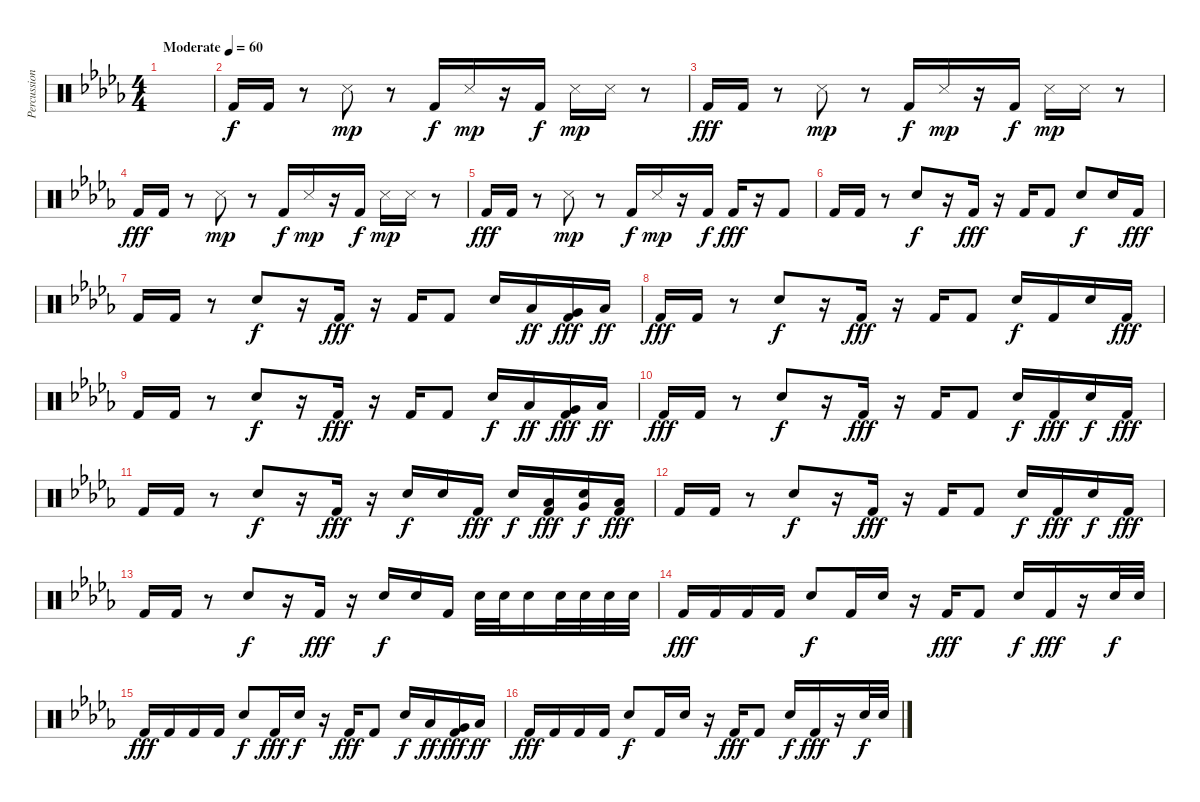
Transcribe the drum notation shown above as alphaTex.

\track ("Percussion" "Percussion") {instrument percussion}
\staff {score}
\articulation defaults
\ts (4 4)
\tempo (60 "Moderate")
\clef neutral
\ks bbminor
|
"Kick (hit) 2".16 "Kick (hit) 2".16 r.8 "Snare (side stick) 3".8{dy mp} r.8 "Kick (hit) 2".16{dy f} "Snare (side stick) 3".16{dy mp} r.16 "Kick (hit) 2".16{dy f} "Snare (side stick) 3".16{dy mp} "Snare (side stick) 3".16 r.8 |
"Kick (hit) 2".16{dy fff} "Kick (hit) 2".16 r.8 "Snare (side stick) 3".8{dy mp} r.8 "Kick (hit) 2".16{dy f} "Snare (side stick) 3".16{dy mp} r.16 "Kick (hit) 2".16{dy f} "Snare (side stick) 3".16{dy mp} "Snare (side stick) 3".16 r.8 |
"Kick (hit) 2".16{dy fff} "Kick (hit) 2".16 r.8 "Snare (side stick) 3".8{dy mp} r.8 "Kick (hit) 2".16{dy f} "Snare (side stick) 3".16{dy mp} r.16 "Kick (hit) 2".16{dy f} "Snare (side stick) 3".16{dy mp} "Snare (side stick) 3".16 r.8 |
"Kick (hit) 2".16{dy fff} "Kick (hit) 2".16 r.8 "Snare (side stick) 3".8{dy mp} r.8 "Kick (hit) 2".16{dy f} "Snare (side stick) 3".16{dy mp} r.16 "Kick (hit) 2".16{dy f} "Kick (hit) 2".16{dy fff} r.16 "Kick (hit) 2".8 |
"Kick (hit) 2".16 "Kick (hit) 2".16 r.8 "Electric Snare (hit)".8{dy f} r.16 "Kick (hit) 2".16{dy fff} r.16 "Kick (hit) 2".16 "Kick (hit) 2".8 "Electric Snare (hit)".8{dy f} "Electric Snare (hit)".16 "Kick (hit) 2".16{dy fff} |
"Kick (hit) 2".16 "Kick (hit) 2".16 r.8 "Electric Snare (hit)".8{dy f} r.16 "Kick (hit) 2".16{dy fff} r.16 "Kick (hit) 2".16 "Kick (hit) 2".8 "Electric Snare (hit)".16 "Low Tom (hit)".16{dy ff} ("Very Low Tom (hit)" "Kick (hit) 2").16{dy fff} "Low Floor Tom (hit)".16{dy ff} |
"Kick (hit) 2".16{dy fff} "Kick (hit) 2".16 r.8 "Electric Snare (hit)".8{dy f} r.16 "Kick (hit) 2".16{dy fff} r.16 "Kick (hit) 2".16 "Kick (hit) 2".8 "Electric Snare (hit)".16{dy f} "Kick (hit) 2".16 "Electric Snare (hit)".16 "Kick (hit) 2".16{dy fff} |
"Kick (hit) 2".16 "Kick (hit) 2".16 r.8 "Electric Snare (hit)".8{dy f} r.16 "Kick (hit) 2".16{dy fff} r.16 "Kick (hit) 2".16 "Kick (hit) 2".8 "Electric Snare (hit)".16{dy f} "Low Tom (hit)".16{dy ff} ("Very Low Tom (hit)" "Kick (hit) 2").16{dy fff} "Low Floor Tom (hit)".16{dy ff} |
"Kick (hit) 2".16{dy fff} "Kick (hit) 2".16 r.8 "Electric Snare (hit)".8{dy f} r.16 "Kick (hit) 2".16{dy fff} r.16 "Kick (hit) 2".16 "Kick (hit) 2".8 "Electric Snare (hit)".16{dy f} "Kick (hit) 2".16{dy fff} "Electric Snare (hit)".16{dy f} "Kick (hit) 2".16{dy fff} |
"Kick (hit) 2".16 "Kick (hit) 2".16 r.8 "Electric Snare (hit)".8{dy f} r.16 "Kick (hit) 2".16{dy fff} r.16 "Electric Snare (hit)".16{dy f} "Electric Snare (hit)".16 "Kick (hit) 2".16{dy fff} "Electric Snare (hit)".16{dy f} ("Low Tom (hit)" "Kick (hit) 2").16{dy fff} ("Electric Snare (hit)" "Very Low Tom (hit)").16{dy f} ("Low Floor Tom (hit)" "Kick (hit) 2").16{dy fff} |
"Kick (hit) 2".16 "Kick (hit) 2".16 r.8 "Electric Snare (hit)".8{dy f} r.16 "Kick (hit) 2".16{dy fff} r.16 "Kick (hit) 2".16 "Kick (hit) 2".8 "Electric Snare (hit)".16{dy f} "Kick (hit) 2".16{dy fff} "Electric Snare (hit)".16{dy f} "Kick (hit) 2".16{dy fff} |
"Kick (hit) 2".16 "Kick (hit) 2".16 r.8 "Electric Snare (hit)".8{dy f} r.16 "Kick (hit) 2".16{dy fff} r.16 "Electric Snare (hit)".16{dy f} "Electric Snare (hit)".16 "Kick (hit) 2".16 "Electric Snare (hit)".32 "Electric Snare (hit)".32 "Electric Snare (hit)".16 "Electric Snare (hit)".32 "Electric Snare (hit)".32 "Electric Snare (hit)".32 "Electric Snare (hit)".32 |
"Kick (hit) 2".16{dy fff} "Kick (hit) 2".16 "Kick (hit) 2".16 "Kick (hit) 2".16 "Electric Snare (hit)".8{dy f} "Kick (hit) 2".16 "Electric Snare (hit)".16 r.16 "Kick (hit) 2".16{dy fff} "Kick (hit) 2".8 "Electric Snare (hit)".16{dy f} "Kick (hit) 2".16{dy fff} r.16 "Electric Snare (hit)".32{dy f} "Electric Snare (hit)".32 |
"Kick (hit) 2".16{dy fff} "Kick (hit) 2".16 "Kick (hit) 2".16 "Kick (hit) 2".16 "Electric Snare (hit)".8{dy f} "Kick (hit) 2".16{dy fff} "Electric Snare (hit)".16{dy f} r.16 "Kick (hit) 2".16{dy fff} "Kick (hit) 2".8 "Electric Snare (hit)".16{dy f} "Low Tom (hit)".16{dy ff} ("Very Low Tom (hit)" "Kick (hit) 2").16{dy fff} "Low Floor Tom (hit)".16{dy ff} |
"Kick (hit) 2".16{dy fff} "Kick (hit) 2".16 "Kick (hit) 2".16 "Kick (hit) 2".16 "Electric Snare (hit)".8{dy f} "Kick (hit) 2".16 "Electric Snare (hit)".16 r.16 "Kick (hit) 2".16{dy fff} "Kick (hit) 2".8 "Electric Snare (hit)".16{dy f} "Kick (hit) 2".16{dy fff} r.16 "Electric Snare (hit)".32{dy f} "Electric Snare (hit)".32
